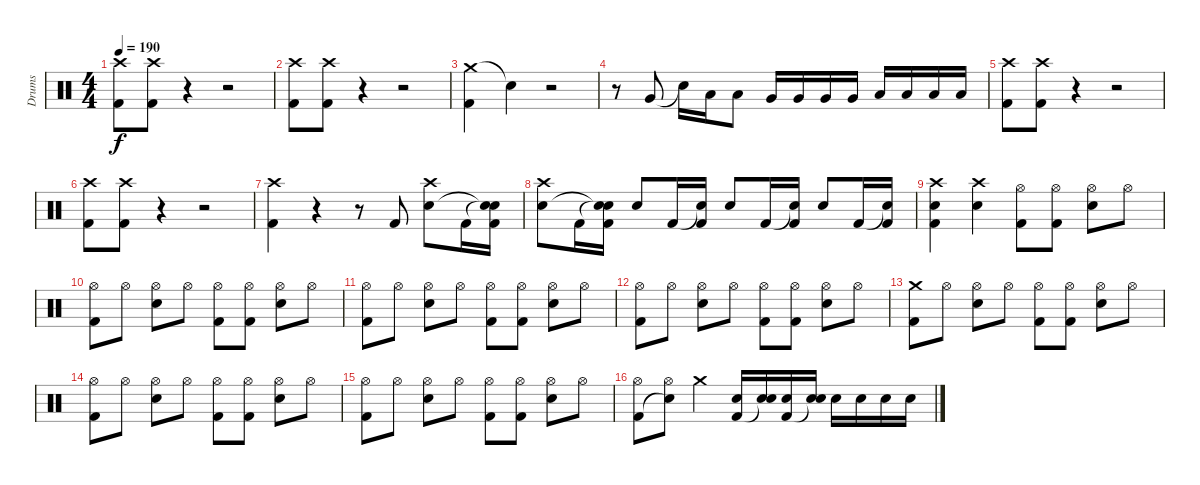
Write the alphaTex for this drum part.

\track ("Drums" "Drums") {instrument percussion}
\staff {score}
\articulation defaults
\ts (4 4)
\tempo 190
\clef neutral
\ks c
("Crash high (hit)" "Kick (hit) 2").8{dy f} ("Crash high (hit)" "Kick (hit) 2").8 r.4 r.2 |
("Crash high (hit)" "Kick (hit) 2").8 ("Crash high (hit)" "Kick (hit) 2").8 r.4 r.2 |
("Crash medium (hit)" "Kick (hit) 2").4 "Snare (hit)"{t}.4 r.2 |
r.8 "Very Low Tom (hit)".8 "Snare (hit)"{t}.16 "Low Floor Tom (hit)".16 "Low Floor Tom (hit)".8 "Very Low Tom (hit)".16 "Very Low Tom (hit)".16 "Very Low Tom (hit)".16 "Very Low Tom (hit)".16 "Low Floor Tom (hit)".16 "Low Floor Tom (hit)".16 "Low Floor Tom (hit)".16 "Low Floor Tom (hit)".16 |
("Crash high (hit)" "Kick (hit) 2").8 ("Crash high (hit)" "Kick (hit) 2").8 r.4 r.2 |
("Crash high (hit)" "Kick (hit) 2").8 ("Crash high (hit)" "Kick (hit) 2").8 r.4 r.2 |
("Crash high (hit)" "Kick (hit) 2").4 r.4 r.8 "Kick (hit) 2".8 ("Crash high (hit)" "Snare (hit) 2").8 "Kick (hit) 2".16 ("Snare (hit)"{t} "Snare (hit)"{t} "Kick (hit) 2").16 |
("Crash high (hit)" "Snare (hit) 2").8 "Kick (hit) 2".16 ("Snare (hit)"{t} "Snare (hit)"{t} "Kick (hit) 2").16 "Snare (hit) 2".8 "Kick (hit) 2".16 ("Snare (hit)"{t} "Kick (hit) 2").16 "Snare (hit) 2".8 "Kick (hit) 2".16 ("Snare (hit)"{t} "Kick (hit) 2").16 "Snare (hit) 2".8 "Kick (hit) 2".16 ("Snare (hit)"{t} "Kick (hit) 2").16 |
("Crash high (hit)" "Snare (hit) 2" "Kick (hit) 2").4 ("Crash high (hit)" "Snare (hit) 2").4 ("Hi-Hat (open)" "Kick (hit) 2").8 ("Hi-Hat (open)" "Kick (hit) 2").8 ("Hi-Hat (open)" "Snare (hit) 2").8 "Hi-Hat (open)".8 |
("Hi-Hat (open)" "Kick (hit) 2").8 "Hi-Hat (open)".8 ("Hi-Hat (open)" "Snare (hit) 2").8 "Hi-Hat (open)".8 ("Hi-Hat (open)" "Kick (hit) 2").8 ("Hi-Hat (open)" "Kick (hit) 2").8 ("Hi-Hat (open)" "Snare (hit) 2").8 "Hi-Hat (open)".8 |
("Hi-Hat (open)" "Kick (hit) 2").8 "Hi-Hat (open)".8 ("Hi-Hat (open)" "Snare (hit) 2").8 "Hi-Hat (open)".8 ("Hi-Hat (open)" "Kick (hit) 2").8 ("Hi-Hat (open)" "Kick (hit) 2").8 ("Hi-Hat (open)" "Snare (hit) 2").8 "Hi-Hat (open)".8 |
("Hi-Hat (open)" "Kick (hit) 2").8 "Hi-Hat (open)".8 ("Hi-Hat (open)" "Snare (hit) 2").8 "Hi-Hat (open)".8 ("Hi-Hat (open)" "Kick (hit) 2").8 ("Hi-Hat (open)" "Kick (hit) 2").8 ("Hi-Hat (open)" "Snare (hit) 2").8 "Hi-Hat (open)".8 |
("Crash medium (hit)" "Kick (hit) 2").8 "Hi-Hat (open)".8 ("Hi-Hat (open)" "Snare (hit) 2").8 "Hi-Hat (open)".8 ("Hi-Hat (open)" "Kick (hit) 2").8 ("Hi-Hat (open)" "Kick (hit) 2").8 ("Hi-Hat (open)" "Snare (hit) 2").8 "Hi-Hat (open)".8 |
("Hi-Hat (open)" "Kick (hit) 2").8 "Hi-Hat (open)".8 ("Hi-Hat (open)" "Snare (hit) 2").8 "Hi-Hat (open)".8 ("Hi-Hat (open)" "Kick (hit) 2").8 ("Hi-Hat (open)" "Kick (hit) 2").8 ("Hi-Hat (open)" "Snare (hit) 2").8 "Hi-Hat (open)".8 |
("Hi-Hat (open)" "Kick (hit) 2").8 "Hi-Hat (open)".8 ("Hi-Hat (open)" "Snare (hit) 2").8 "Hi-Hat (open)".8 ("Hi-Hat (open)" "Kick (hit) 2").8 ("Hi-Hat (open)" "Kick (hit) 2").8 ("Hi-Hat (open)" "Snare (hit) 2").8 "Hi-Hat (open)".8 |
("Hi-Hat (open)" "Kick (hit) 2").8 ("Hi-Hat (open)" "Snare (hit)"{t}).8 "Crash medium (hit)".4 ("Snare (hit) 2" "Kick (hit) 2").16 ("Snare (hit) 2" "Snare (hit)"{t}).16 ("Snare (hit) 2" "Kick (hit) 2").16 ("Snare (hit) 2" "Snare (hit)"{t}).16 "Snare (hit) 2".16 "Snare (hit) 2".16 "Snare (hit) 2".16 "Snare (hit) 2".16
